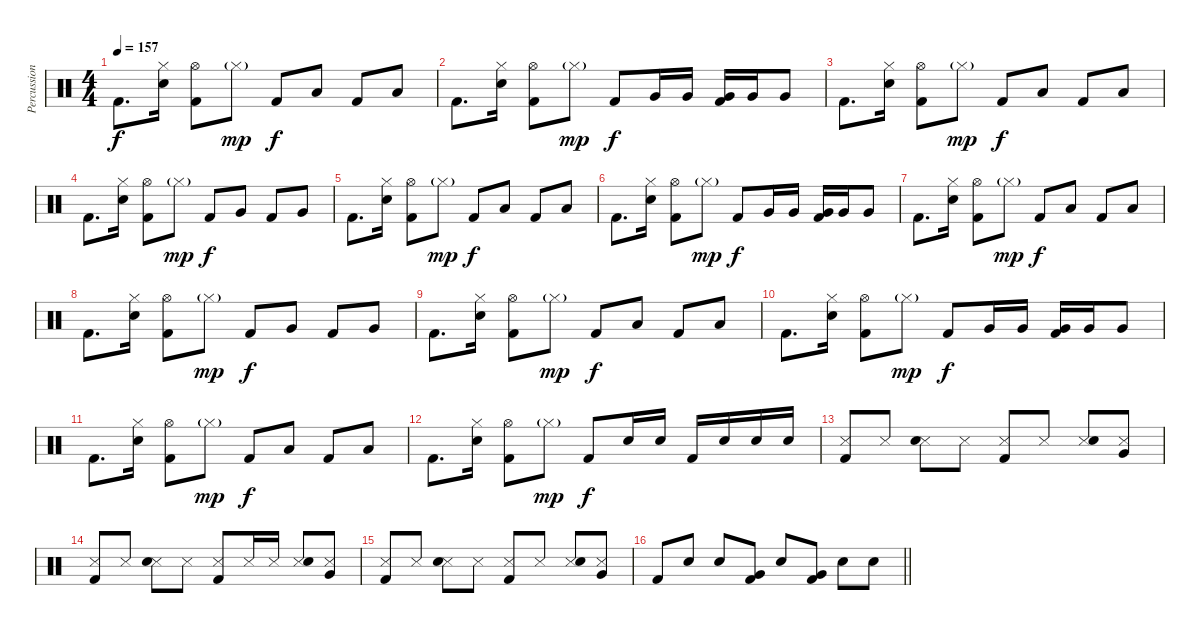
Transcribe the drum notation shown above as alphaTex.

\track ("Percussion" "Percussion") {instrument percussion}
\staff {score}
\articulation defaults
\ts (4 4)
\tempo 157
\clef neutral
\ks c "Kick (hit) 2".8{d dy f}
("Hi-Hat (closed)" "Snare (hit) 2").16 ("Hi-Hat (open)" "Kick (hit) 2").8 "Hi-Hat (closed)"{g}.8{dy mp} "Kick (hit) 2".8{dy f} "Low Tom (hit)".8 "Kick (hit) 2".8 "Low Tom (hit)".8 |
"Kick (hit) 2".8{d} ("Hi-Hat (closed)" "Snare (hit) 2").16 ("Hi-Hat (open)" "Kick (hit) 2").8 "Hi-Hat (closed)"{g}.8{dy mp} "Kick (hit) 2".8{dy f} "Very Low Tom (hit)".16 "Very Low Tom (hit)".16 ("Very Low Tom (hit)" "Kick (hit) 2").16 "Very Low Tom (hit)".16 "Very Low Tom (hit)".8 |
"Kick (hit) 2".8{d} ("Hi-Hat (closed)" "Snare (hit) 2").16 ("Hi-Hat (open)" "Kick (hit) 2").8 "Hi-Hat (closed)"{g}.8{dy mp} "Kick (hit) 2".8{dy f} "Low Tom (hit)".8 "Kick (hit) 2".8 "Low Tom (hit)".8 |
"Kick (hit) 2".8{d} ("Hi-Hat (closed)" "Snare (hit) 2").16 ("Hi-Hat (open)" "Kick (hit) 2").8 "Hi-Hat (closed)"{g}.8{dy mp} "Kick (hit) 2".8{dy f} "Very Low Tom (hit)".8 "Kick (hit) 2".8 "Very Low Tom (hit)".8 |
"Kick (hit) 2".8{d} ("Hi-Hat (closed)" "Snare (hit) 2").16 ("Hi-Hat (open)" "Kick (hit) 2").8 "Hi-Hat (closed)"{g}.8{dy mp} "Kick (hit) 2".8{dy f} "Low Tom (hit)".8 "Kick (hit) 2".8 "Low Tom (hit)".8 |
"Kick (hit) 2".8{d} ("Hi-Hat (closed)" "Snare (hit) 2").16 ("Hi-Hat (open)" "Kick (hit) 2").8 "Hi-Hat (closed)"{g}.8{dy mp} "Kick (hit) 2".8{dy f} "Very Low Tom (hit)".16 "Very Low Tom (hit)".16 ("Very Low Tom (hit)" "Kick (hit) 2").16 "Very Low Tom (hit)".16 "Very Low Tom (hit)".8 |
"Kick (hit) 2".8{d} ("Hi-Hat (closed)" "Snare (hit) 2").16 ("Hi-Hat (open)" "Kick (hit) 2").8 "Hi-Hat (closed)"{g}.8{dy mp} "Kick (hit) 2".8{dy f} "Low Tom (hit)".8 "Kick (hit) 2".8 "Low Tom (hit)".8 |
"Kick (hit) 2".8{d} ("Hi-Hat (closed)" "Snare (hit) 2").16 ("Hi-Hat (open)" "Kick (hit) 2").8 "Hi-Hat (closed)"{g}.8{dy mp} "Kick (hit) 2".8{dy f} "Very Low Tom (hit)".8 "Kick (hit) 2".8 "Very Low Tom (hit)".8 |
"Kick (hit) 2".8{d} ("Hi-Hat (closed)" "Snare (hit) 2").16 ("Hi-Hat (open)" "Kick (hit) 2").8 "Hi-Hat (closed)"{g}.8{dy mp} "Kick (hit) 2".8{dy f} "Low Tom (hit)".8 "Kick (hit) 2".8 "Low Tom (hit)".8 |
"Kick (hit) 2".8{d} ("Hi-Hat (closed)" "Snare (hit) 2").16 ("Hi-Hat (open)" "Kick (hit) 2").8 "Hi-Hat (closed)"{g}.8{dy mp} "Kick (hit) 2".8{dy f} "Very Low Tom (hit)".16 "Very Low Tom (hit)".16 ("Very Low Tom (hit)" "Kick (hit) 2").16 "Very Low Tom (hit)".16 "Very Low Tom (hit)".8 |
"Kick (hit) 2".8{d} ("Hi-Hat (closed)" "Snare (hit) 2").16 ("Hi-Hat (open)" "Kick (hit) 2").8 "Hi-Hat (closed)"{g}.8{dy mp} "Kick (hit) 2".8{dy f} "Low Tom (hit)".8 "Kick (hit) 2".8 "Low Tom (hit)".8 |
"Kick (hit) 2".8{d} ("Hi-Hat (closed)" "Snare (hit) 2").16 ("Hi-Hat (open)" "Kick (hit) 2").8 "Hi-Hat (closed)"{g}.8{dy mp} "Kick (hit) 2".8{dy f} "Snare (hit) 2".16 "Snare (hit) 2".16 "Kick (hit) 2".16 "Snare (hit) 2".16 "Snare (hit) 2".16 "Snare (hit) 2".16 |
("Metronome (hit)" "Kick (hit) 2").8 "Metronome (hit)".8 ("Metronome (hit)" "Snare (hit) 2").8 "Metronome (hit)".8 ("Metronome (hit)" "Kick (hit) 2").8 "Metronome (hit)".8 ("Metronome (hit)" "Snare (hit) 2").8 ("Metronome (hit)" "Very Low Tom (hit)").8 |
("Metronome (hit)" "Kick (hit) 2").8 "Metronome (hit)".8 ("Metronome (hit)" "Snare (hit) 2").8 "Metronome (hit)".8 ("Metronome (hit)" "Kick (hit) 2").8 "Metronome (hit)".16 "Metronome (hit)".16 ("Metronome (hit)" "Snare (hit) 2").8 ("Metronome (hit)" "Very Low Tom (hit)").8 |
("Metronome (hit)" "Kick (hit) 2").8 "Metronome (hit)".8 ("Metronome (hit)" "Snare (hit) 2").8 "Metronome (hit)".8 ("Metronome (hit)" "Kick (hit) 2").8 "Metronome (hit)".8 ("Metronome (hit)" "Snare (hit) 2").8 ("Metronome (hit)" "Very Low Tom (hit)").8 |
\barLineRight lightlight "Kick (hit) 2".8 "Snare (hit) 2".8 "Snare (hit) 2".8
("Very Low Tom (hit)" "Kick (hit) 2").8 "Snare (hit) 2".8 ("Very Low Tom (hit)" "Kick (hit) 2").8 "Snare (hit) 2".8 "Snare (hit) 2".8
